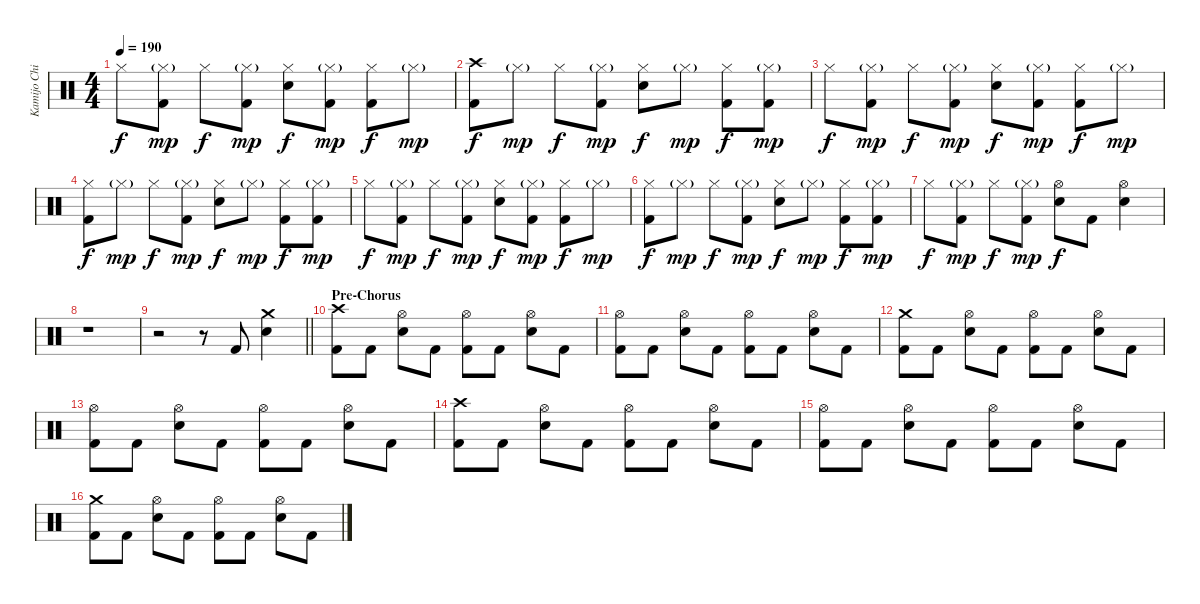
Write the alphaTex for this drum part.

\track ("Kamijo Chihiro" "Kamijo Chi") {instrument percussion}
\staff {score}
\articulation defaults
\ts (4 4)
\tempo 190
\clef neutral
\ks c "Hi-Hat (closed)".8{dy f}
("Hi-Hat (closed)"{g} "Kick (hit) 2").8{dy mp} "Hi-Hat (closed)".8{dy f} ("Hi-Hat (closed)"{g} "Kick (hit) 2").8{dy mp} ("Hi-Hat (closed)" "Snare (hit) 2").8{dy f} ("Hi-Hat (closed)"{g} "Kick (hit) 2").8{dy mp} ("Hi-Hat (closed)" "Kick (hit) 2").8{dy f} "Hi-Hat (closed)"{g}.8{dy mp} |
("Crash high (hit)" "Kick (hit) 2").8{dy f} "Hi-Hat (closed)"{g}.8{dy mp} "Hi-Hat (closed)".8{dy f} ("Hi-Hat (closed)"{g} "Kick (hit) 2").8{dy mp} ("Hi-Hat (closed)" "Snare (hit) 2").8{dy f} "Hi-Hat (closed)"{g}.8{dy mp} ("Hi-Hat (closed)" "Kick (hit) 2").8{dy f} ("Hi-Hat (closed)"{g} "Kick (hit) 2").8{dy mp} |
"Hi-Hat (closed)".8{dy f} ("Hi-Hat (closed)"{g} "Kick (hit) 2").8{dy mp} "Hi-Hat (closed)".8{dy f} ("Hi-Hat (closed)"{g} "Kick (hit) 2").8{dy mp} ("Hi-Hat (closed)" "Snare (hit) 2").8{dy f} ("Hi-Hat (closed)"{g} "Kick (hit) 2").8{dy mp} ("Hi-Hat (closed)" "Kick (hit) 2").8{dy f} "Hi-Hat (closed)"{g}.8{dy mp} |
("Hi-Hat (closed)" "Kick (hit) 2").8{dy f} "Hi-Hat (closed)"{g}.8{dy mp} "Hi-Hat (closed)".8{dy f} ("Hi-Hat (closed)"{g} "Kick (hit) 2").8{dy mp} ("Hi-Hat (closed)" "Snare (hit) 2").8{dy f} "Hi-Hat (closed)"{g}.8{dy mp} ("Hi-Hat (closed)" "Kick (hit) 2").8{dy f} ("Hi-Hat (closed)"{g} "Kick (hit) 2").8{dy mp} |
"Hi-Hat (closed)".8{dy f} ("Hi-Hat (closed)"{g} "Kick (hit) 2").8{dy mp} "Hi-Hat (closed)".8{dy f} ("Hi-Hat (closed)"{g} "Kick (hit) 2").8{dy mp} ("Hi-Hat (closed)" "Snare (hit) 2").8{dy f} ("Hi-Hat (closed)"{g} "Kick (hit) 2").8{dy mp} ("Hi-Hat (closed)" "Kick (hit) 2").8{dy f} "Hi-Hat (closed)"{g}.8{dy mp} |
("Hi-Hat (closed)" "Kick (hit) 2").8{dy f} "Hi-Hat (closed)"{g}.8{dy mp} "Hi-Hat (closed)".8{dy f} ("Hi-Hat (closed)"{g} "Kick (hit) 2").8{dy mp} ("Hi-Hat (closed)" "Snare (hit) 2").8{dy f} "Hi-Hat (closed)"{g}.8{dy mp} ("Hi-Hat (closed)" "Kick (hit) 2").8{dy f} ("Hi-Hat (closed)"{g} "Kick (hit) 2").8{dy mp} |
"Hi-Hat (closed)".8{dy f} ("Hi-Hat (closed)"{g} "Kick (hit) 2").8{dy mp} "Hi-Hat (closed)".8{dy f} ("Hi-Hat (closed)"{g} "Kick (hit) 2").8{dy mp} ("Hi-Hat (open)" "Snare (hit) 2").8{dy f} "Kick (hit) 2".8 ("Hi-Hat (open)" "Snare (hit) 2").4 |
r.1 |
\barLineRight lightlight
r.2 r.8 "Kick (hit) 2".8 ("Crash medium (hit)" "Snare (hit) 2").4 |
\section ("" "Pre-Chorus")
("Crash high (hit)" "Kick (hit) 2").8 "Kick (hit) 2".8 ("Hi-Hat (open)" "Snare (hit) 2").8 "Kick (hit) 2".8 ("Hi-Hat (open)" "Kick (hit) 2").8 "Kick (hit) 2".8 ("Hi-Hat (open)" "Snare (hit) 2").8 "Kick (hit) 2".8 |
("Hi-Hat (open)" "Kick (hit) 2").8 "Kick (hit) 2".8 ("Hi-Hat (open)" "Snare (hit) 2").8 "Kick (hit) 2".8 ("Hi-Hat (open)" "Kick (hit) 2").8 "Kick (hit) 2".8 ("Hi-Hat (open)" "Snare (hit) 2").8 "Kick (hit) 2".8 |
("Crash medium (hit)" "Kick (hit) 2").8 "Kick (hit) 2".8 ("Hi-Hat (open)" "Snare (hit) 2").8 "Kick (hit) 2".8 ("Hi-Hat (open)" "Kick (hit) 2").8 "Kick (hit) 2".8 ("Hi-Hat (open)" "Snare (hit) 2").8 "Kick (hit) 2".8 |
("Hi-Hat (open)" "Kick (hit) 2").8 "Kick (hit) 2".8 ("Hi-Hat (open)" "Snare (hit) 2").8 "Kick (hit) 2".8 ("Hi-Hat (open)" "Kick (hit) 2").8 "Kick (hit) 2".8 ("Hi-Hat (open)" "Snare (hit) 2").8 "Kick (hit) 2".8 |
("Crash high (hit)" "Kick (hit) 2").8 "Kick (hit) 2".8 ("Hi-Hat (open)" "Snare (hit) 2").8 "Kick (hit) 2".8 ("Hi-Hat (open)" "Kick (hit) 2").8 "Kick (hit) 2".8 ("Hi-Hat (open)" "Snare (hit) 2").8 "Kick (hit) 2".8 |
("Hi-Hat (open)" "Kick (hit) 2").8 "Kick (hit) 2".8 ("Hi-Hat (open)" "Snare (hit) 2").8 "Kick (hit) 2".8 ("Hi-Hat (open)" "Kick (hit) 2").8 "Kick (hit) 2".8 ("Hi-Hat (open)" "Snare (hit) 2").8 "Kick (hit) 2".8 |
("Crash medium (hit)" "Kick (hit) 2").8 "Kick (hit) 2".8 ("Hi-Hat (open)" "Snare (hit) 2").8 "Kick (hit) 2".8 ("Hi-Hat (open)" "Kick (hit) 2").8 "Kick (hit) 2".8 ("Hi-Hat (open)" "Snare (hit) 2").8 "Kick (hit) 2".8
